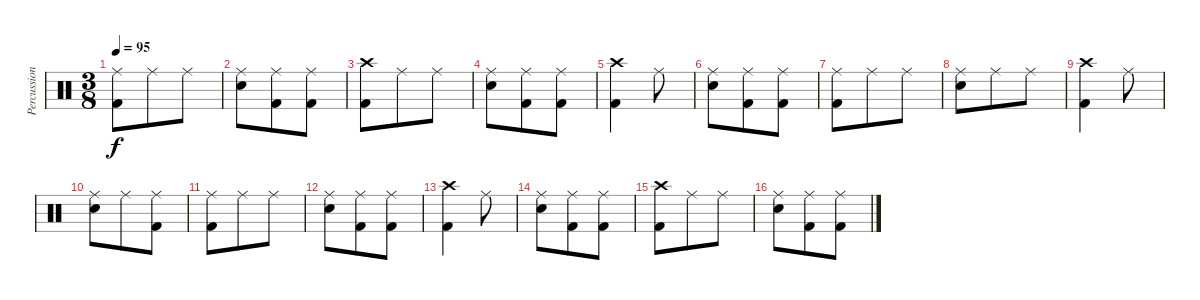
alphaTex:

\track ("Percussion" "Percussion") {instrument percussion}
\staff {score}
\articulation defaults
\ts (3 8)
\tempo 95
\clef neutral
\ks c
("Ride (middle)" "Kick (hit) 2").8{dy f} "Ride (middle)".8 "Ride (middle)".8 |
("Ride (middle)" "Snare (hit) 2").8 ("Ride (middle)" "Kick (hit) 2").8 ("Ride (middle)" "Kick (hit) 2").8 |
("Crash high (hit)" "Kick (hit) 2").8 "Ride (middle)".8 "Ride (middle)".8 |
("Ride (middle)" "Snare (hit) 2").8 ("Ride (middle)" "Kick (hit) 2").8 ("Ride (middle)" "Kick (hit) 2").8 |
("Crash high (hit)" "Kick (hit) 2").4 "Ride (middle)".8 |
("Ride (middle)" "Snare (hit) 2").8 ("Ride (middle)" "Kick (hit) 2").8 ("Ride (middle)" "Kick (hit) 2").8 |
("Ride (middle)" "Kick (hit) 2").8 "Ride (middle)".8 "Ride (middle)".8 |
("Ride (middle)" "Snare (hit) 2").8 "Ride (middle)".8 "Ride (middle)".8 |
("Crash high (hit)" "Kick (hit) 2").4 "Ride (middle)".8 |
("Ride (middle)" "Snare (hit) 2").8 "Ride (middle)".8 ("Ride (middle)" "Kick (hit) 2").8 |
("Ride (middle)" "Kick (hit) 2").8 "Ride (middle)".8 "Ride (middle)".8 |
("Ride (middle)" "Snare (hit) 2").8 ("Ride (middle)" "Kick (hit) 2").8 ("Ride (middle)" "Kick (hit) 2").8 |
("Crash high (hit)" "Kick (hit) 2").4 "Ride (middle)".8 |
("Ride (middle)" "Snare (hit) 2").8 ("Ride (middle)" "Kick (hit) 2").8 ("Ride (middle)" "Kick (hit) 2").8 |
("Crash high (hit)" "Kick (hit) 2").8 "Ride (middle)".8 "Ride (middle)".8 |
("Ride (middle)" "Snare (hit) 2").8 ("Ride (middle)" "Kick (hit) 2").8 ("Ride (middle)" "Kick (hit) 2").8
